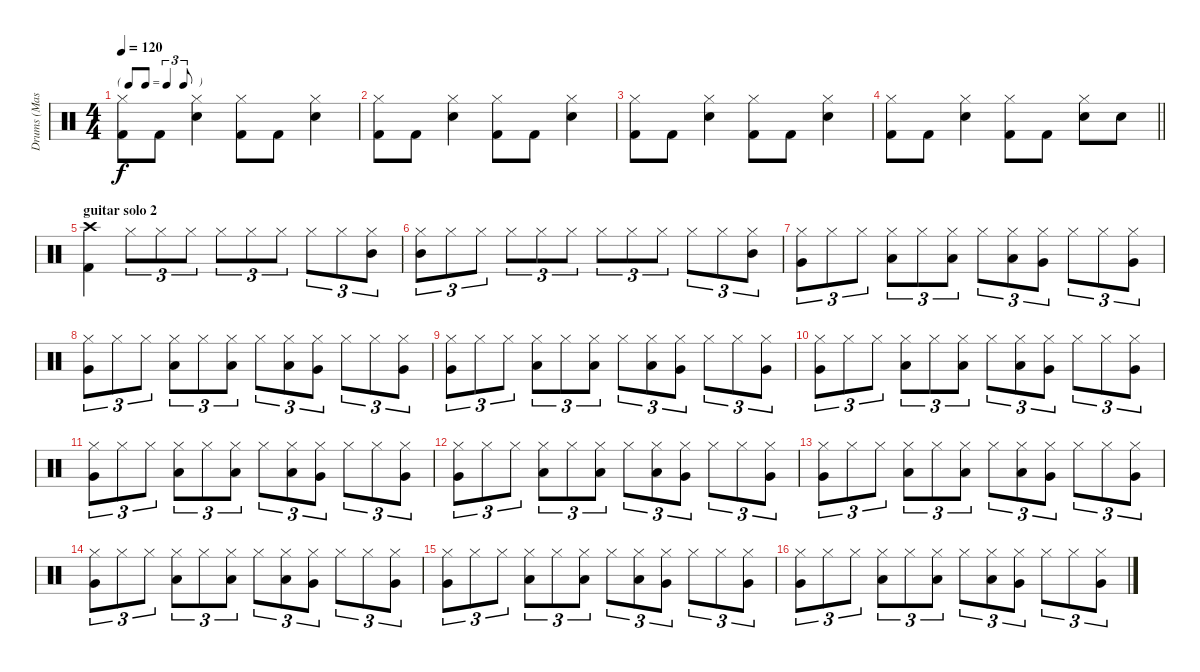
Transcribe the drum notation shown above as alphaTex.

\track ("Drums (Mason)" "Drums (Mas") {instrument percussion}
\staff {score}
\articulation defaults
\ts (4 4)
\tf triplet8th
\tempo 120
\clef neutral
\ks c
("Hi-Hat (closed)" "Kick (hit) 2").8{dy f} "Kick (hit) 2".8 ("Hi-Hat (closed)" "Electric Snare (hit)").4 ("Hi-Hat (closed)" "Kick (hit) 2").8 "Kick (hit) 2".8 ("Hi-Hat (closed)" "Electric Snare (hit)").4 |
("Hi-Hat (closed)" "Kick (hit) 2").8 "Kick (hit) 2".8 ("Hi-Hat (closed)" "Electric Snare (hit)").4 ("Hi-Hat (closed)" "Kick (hit) 2").8 "Kick (hit) 2".8 ("Hi-Hat (closed)" "Electric Snare (hit)").4 |
("Hi-Hat (closed)" "Kick (hit) 2").8 "Kick (hit) 2".8 ("Hi-Hat (closed)" "Electric Snare (hit)").4 ("Hi-Hat (closed)" "Kick (hit) 2").8 "Kick (hit) 2".8 ("Hi-Hat (closed)" "Electric Snare (hit)").4 |
\barLineRight lightlight
("Hi-Hat (closed)" "Kick (hit) 2").8 "Kick (hit) 2".8 ("Hi-Hat (closed)" "Electric Snare (hit)").4 ("Hi-Hat (closed)" "Kick (hit) 2").8 "Kick (hit) 2".8 ("Hi-Hat (closed)" "Electric Snare (hit)").8 "Electric Snare (hit)".8 |
\section ("" "guitar solo 2")
("Crash high (hit)" "Kick (hit) 2").4 "Hi-Hat (closed)".8{tu (3 2)} "Hi-Hat (closed)".8{tu (3 2)} "Hi-Hat (closed)".8{tu (3 2)} "Hi-Hat (closed)".8{tu (3 2)} "Hi-Hat (closed)".8{tu (3 2)} "Hi-Hat (closed)".8{tu (3 2)} "Hi-Hat (closed)".8{tu (3 2)} "Hi-Hat (closed)".8{tu (3 2)} ("Hi-Hat (closed)" "Mid Tom (hit)").8{tu (3 2)} |
("Hi-Hat (closed)" "Mid Tom (hit)").8{tu (3 2)} "Hi-Hat (closed)".8{tu (3 2)} "Hi-Hat (closed)".8{tu (3 2)} "Hi-Hat (closed)".8{tu (3 2)} "Hi-Hat (closed)".8{tu (3 2)} "Hi-Hat (closed)".8{tu (3 2)} "Hi-Hat (closed)".8{tu (3 2)} "Hi-Hat (closed)".8{tu (3 2)} "Hi-Hat (closed)".8{tu (3 2)} "Hi-Hat (closed)".8{tu (3 2)} "Hi-Hat (closed)".8{tu (3 2)} ("Hi-Hat (closed)" "Mid Tom (hit)").8{tu (3 2)} |
("Hi-Hat (closed)" "Very Low Tom (hit)").8{tu (3 2)} "Hi-Hat (closed)".8{tu (3 2)} "Hi-Hat (closed)".8{tu (3 2)} ("Hi-Hat (closed)" "Low Tom (hit)").8{tu (3 2)} "Hi-Hat (closed)".8{tu (3 2)} ("Hi-Hat (closed)" "Low Tom (hit)").8{tu (3 2)} "Hi-Hat (closed)".8{tu (3 2)} ("Hi-Hat (closed)" "Low Tom (hit)").8{tu (3 2)} ("Hi-Hat (closed)" "Very Low Tom (hit)").8{tu (3 2)} "Hi-Hat (closed)".8{tu (3 2)} "Hi-Hat (closed)".8{tu (3 2)} ("Hi-Hat (closed)" "Very Low Tom (hit)").8{tu (3 2)} |
("Hi-Hat (closed)" "Very Low Tom (hit)").8{tu (3 2)} "Hi-Hat (closed)".8{tu (3 2)} "Hi-Hat (closed)".8{tu (3 2)} ("Hi-Hat (closed)" "Low Tom (hit)").8{tu (3 2)} "Hi-Hat (closed)".8{tu (3 2)} ("Hi-Hat (closed)" "Low Tom (hit)").8{tu (3 2)} "Hi-Hat (closed)".8{tu (3 2)} ("Hi-Hat (closed)" "Low Tom (hit)").8{tu (3 2)} ("Hi-Hat (closed)" "Very Low Tom (hit)").8{tu (3 2)} "Hi-Hat (closed)".8{tu (3 2)} "Hi-Hat (closed)".8{tu (3 2)} ("Hi-Hat (closed)" "Very Low Tom (hit)").8{tu (3 2)} |
("Hi-Hat (closed)" "Very Low Tom (hit)").8{tu (3 2)} "Hi-Hat (closed)".8{tu (3 2)} "Hi-Hat (closed)".8{tu (3 2)} ("Hi-Hat (closed)" "Low Tom (hit)").8{tu (3 2)} "Hi-Hat (closed)".8{tu (3 2)} ("Hi-Hat (closed)" "Low Tom (hit)").8{tu (3 2)} "Hi-Hat (closed)".8{tu (3 2)} ("Hi-Hat (closed)" "Low Tom (hit)").8{tu (3 2)} ("Hi-Hat (closed)" "Very Low Tom (hit)").8{tu (3 2)} "Hi-Hat (closed)".8{tu (3 2)} "Hi-Hat (closed)".8{tu (3 2)} ("Hi-Hat (closed)" "Very Low Tom (hit)").8{tu (3 2)} |
("Hi-Hat (closed)" "Very Low Tom (hit)").8{tu (3 2)} "Hi-Hat (closed)".8{tu (3 2)} "Hi-Hat (closed)".8{tu (3 2)} ("Hi-Hat (closed)" "Low Tom (hit)").8{tu (3 2)} "Hi-Hat (closed)".8{tu (3 2)} ("Hi-Hat (closed)" "Low Tom (hit)").8{tu (3 2)} "Hi-Hat (closed)".8{tu (3 2)} ("Hi-Hat (closed)" "Low Tom (hit)").8{tu (3 2)} ("Hi-Hat (closed)" "Very Low Tom (hit)").8{tu (3 2)} "Hi-Hat (closed)".8{tu (3 2)} "Hi-Hat (closed)".8{tu (3 2)} ("Hi-Hat (closed)" "Very Low Tom (hit)").8{tu (3 2)} |
("Hi-Hat (closed)" "Very Low Tom (hit)").8{tu (3 2)} "Hi-Hat (closed)".8{tu (3 2)} "Hi-Hat (closed)".8{tu (3 2)} ("Hi-Hat (closed)" "Low Tom (hit)").8{tu (3 2)} "Hi-Hat (closed)".8{tu (3 2)} ("Hi-Hat (closed)" "Low Tom (hit)").8{tu (3 2)} "Hi-Hat (closed)".8{tu (3 2)} ("Hi-Hat (closed)" "Low Tom (hit)").8{tu (3 2)} ("Hi-Hat (closed)" "Very Low Tom (hit)").8{tu (3 2)} "Hi-Hat (closed)".8{tu (3 2)} "Hi-Hat (closed)".8{tu (3 2)} ("Hi-Hat (closed)" "Very Low Tom (hit)").8{tu (3 2)} |
("Hi-Hat (closed)" "Very Low Tom (hit)").8{tu (3 2)} "Hi-Hat (closed)".8{tu (3 2)} "Hi-Hat (closed)".8{tu (3 2)} ("Hi-Hat (closed)" "Low Tom (hit)").8{tu (3 2)} "Hi-Hat (closed)".8{tu (3 2)} ("Hi-Hat (closed)" "Low Tom (hit)").8{tu (3 2)} "Hi-Hat (closed)".8{tu (3 2)} ("Hi-Hat (closed)" "Low Tom (hit)").8{tu (3 2)} ("Hi-Hat (closed)" "Very Low Tom (hit)").8{tu (3 2)} "Hi-Hat (closed)".8{tu (3 2)} "Hi-Hat (closed)".8{tu (3 2)} ("Hi-Hat (closed)" "Very Low Tom (hit)").8{tu (3 2)} |
("Hi-Hat (closed)" "Very Low Tom (hit)").8{tu (3 2)} "Hi-Hat (closed)".8{tu (3 2)} "Hi-Hat (closed)".8{tu (3 2)} ("Hi-Hat (closed)" "Low Tom (hit)").8{tu (3 2)} "Hi-Hat (closed)".8{tu (3 2)} ("Hi-Hat (closed)" "Low Tom (hit)").8{tu (3 2)} "Hi-Hat (closed)".8{tu (3 2)} ("Hi-Hat (closed)" "Low Tom (hit)").8{tu (3 2)} ("Hi-Hat (closed)" "Very Low Tom (hit)").8{tu (3 2)} "Hi-Hat (closed)".8{tu (3 2)} "Hi-Hat (closed)".8{tu (3 2)} ("Hi-Hat (closed)" "Very Low Tom (hit)").8{tu (3 2)} |
("Hi-Hat (closed)" "Very Low Tom (hit)").8{tu (3 2)} "Hi-Hat (closed)".8{tu (3 2)} "Hi-Hat (closed)".8{tu (3 2)} ("Hi-Hat (closed)" "Low Tom (hit)").8{tu (3 2)} "Hi-Hat (closed)".8{tu (3 2)} ("Hi-Hat (closed)" "Low Tom (hit)").8{tu (3 2)} "Hi-Hat (closed)".8{tu (3 2)} ("Hi-Hat (closed)" "Low Tom (hit)").8{tu (3 2)} ("Hi-Hat (closed)" "Very Low Tom (hit)").8{tu (3 2)} "Hi-Hat (closed)".8{tu (3 2)} "Hi-Hat (closed)".8{tu (3 2)} ("Hi-Hat (closed)" "Very Low Tom (hit)").8{tu (3 2)} |
("Hi-Hat (closed)" "Very Low Tom (hit)").8{tu (3 2)} "Hi-Hat (closed)".8{tu (3 2)} "Hi-Hat (closed)".8{tu (3 2)} ("Hi-Hat (closed)" "Low Tom (hit)").8{tu (3 2)} "Hi-Hat (closed)".8{tu (3 2)} ("Hi-Hat (closed)" "Low Tom (hit)").8{tu (3 2)} "Hi-Hat (closed)".8{tu (3 2)} ("Hi-Hat (closed)" "Low Tom (hit)").8{tu (3 2)} ("Hi-Hat (closed)" "Very Low Tom (hit)").8{tu (3 2)} "Hi-Hat (closed)".8{tu (3 2)} "Hi-Hat (closed)".8{tu (3 2)} ("Hi-Hat (closed)" "Very Low Tom (hit)").8{tu (3 2)} |
("Hi-Hat (closed)" "Very Low Tom (hit)").8{tu (3 2)} "Hi-Hat (closed)".8{tu (3 2)} "Hi-Hat (closed)".8{tu (3 2)} ("Hi-Hat (closed)" "Low Tom (hit)").8{tu (3 2)} "Hi-Hat (closed)".8{tu (3 2)} ("Hi-Hat (closed)" "Low Tom (hit)").8{tu (3 2)} "Hi-Hat (closed)".8{tu (3 2)} ("Hi-Hat (closed)" "Low Tom (hit)").8{tu (3 2)} ("Hi-Hat (closed)" "Very Low Tom (hit)").8{tu (3 2)} "Hi-Hat (closed)".8{tu (3 2)} "Hi-Hat (closed)".8{tu (3 2)} ("Hi-Hat (closed)" "Very Low Tom (hit)").8{tu (3 2)}
